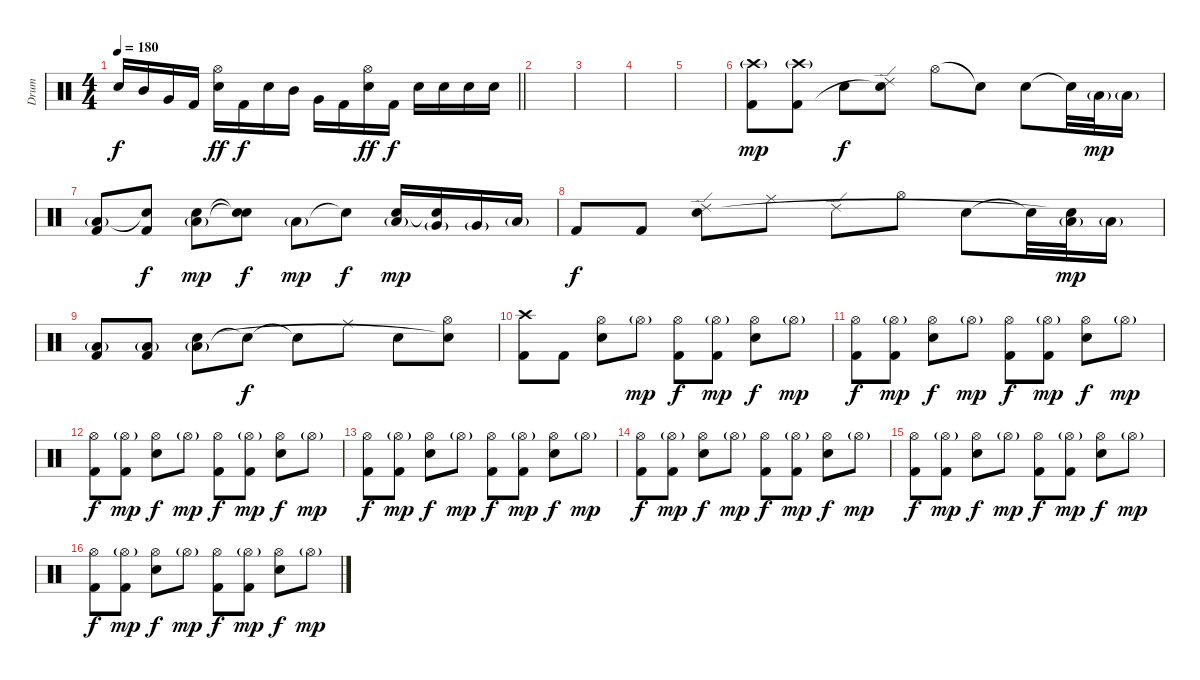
\track ("Drum" "Drum") {instrument percussion}
\staff {score}
\articulation defaults
\ts (4 4)
\tempo 180
\clef neutral
\barLineRight lightlight
\ks c "Electric Snare (hit)".16{dy f} "Mid Tom (hit)".16 "Very Low Tom (hit)".16 "Kick (hit) 2".16
("Hi-Hat (open)" "Electric Snare (hit)").16{dy ff} "Kick (hit) 2".16{dy f} "Electric Snare (hit)".16 "Mid Tom (hit)".16 "Very Low Tom (hit)".16 "Kick (hit) 2".16 ("Hi-Hat (open)" "Electric Snare (hit)").16{dy ff} "Kick (hit) 2".16{dy f} "Electric Snare (hit)".16 "Electric Snare (hit)".16 "Electric Snare (hit)".16 "Electric Snare (hit)".16 |
|
|
|
|
("Crash high (hit)"{g} "Kick (hit) 2").8{dy mp} ("Crash high (hit)"{g} "Kick (hit) 2").8 "Snare (hit) 2".8{dy f} ("Ride (edge) 2" "Snare (hit)"{t}).8 "Hi-Hat (open)".8 "Snare (hit)"{t}.8 "Snare (hit) 2".8 "Snare (hit)"{t}.32 "Low Tom (hit)"{g}.32{dy mp} "Low Tom (hit)"{g}.16 |
("Low Tom (hit)"{g} "Kick (hit) 2").8 ("Snare (hit)"{t} "Kick (hit) 2").8{dy f} ("Low Tom (hit)"{g} "Snare (hit) 2").8{dy mp} ("Snare (hit)"{t} "Snare (hit)"{t}).8{dy f} "Low Tom (hit)"{g}.8{dy mp} "Snare (hit)"{t}.8{dy f} ("Low Tom (hit)"{g} "Snare (hit) 2").16{dy mp} ("Very Low Tom (hit)"{g} "Snare (hit)"{t}).16 "Very Low Tom (hit)"{g}.16 "Low Floor Tom (hit)"{g}.16 |
"Kick (hit) 2".8{dy f} "Kick (hit) 2".8 ("Ride (edge) 2" "Snare (hit) 2").8 "Ride (middle)".8 "Ride (edge) 2".8 "Hi-Hat (open)".8 "Snare (hit) 2".8 "Snare (hit)"{t}.32 ("Low Tom (hit)"{g} "Snare (hit)"{t}).32{dy mp} "Low Tom (hit)"{g}.16 |
("Low Tom (hit)"{g} "Kick (hit) 2").8 ("Low Tom (hit)"{g} "Kick (hit) 2").8 ("Low Tom (hit)"{g} "Snare (hit) 2").8 "Snare (hit)"{t}.8{dy f} "Snare (hit)"{t}.8 "Ride (middle)".8 "Snare (hit) 2".8 ("Hi-Hat (open)" "Snare (hit)"{t}).8 |
("Crash high (hit)" "Kick (hit) 2").8 "Kick (hit) 2".8 ("Hi-Hat (open)" "Electric Snare (hit)").8 "Hi-Hat (open)"{g}.8{dy mp} ("Hi-Hat (open)" "Kick (hit) 2").8{dy f} ("Hi-Hat (open)"{g} "Kick (hit) 2").8{dy mp} ("Hi-Hat (open)" "Electric Snare (hit)").8{dy f} "Hi-Hat (open)"{g}.8{dy mp} |
("Hi-Hat (open)" "Kick (hit) 2").8{dy f} ("Hi-Hat (open)"{g} "Kick (hit) 2").8{dy mp} ("Hi-Hat (open)" "Electric Snare (hit)").8{dy f} "Hi-Hat (open)"{g}.8{dy mp} ("Hi-Hat (open)" "Kick (hit) 2").8{dy f} ("Hi-Hat (open)"{g} "Kick (hit) 2").8{dy mp} ("Hi-Hat (open)" "Electric Snare (hit)").8{dy f} "Hi-Hat (open)"{g}.8{dy mp} |
("Hi-Hat (open)" "Kick (hit) 2").8{dy f} ("Hi-Hat (open)"{g} "Kick (hit) 2").8{dy mp} ("Hi-Hat (open)" "Electric Snare (hit)").8{dy f} "Hi-Hat (open)"{g}.8{dy mp} ("Hi-Hat (open)" "Kick (hit) 2").8{dy f} ("Hi-Hat (open)"{g} "Kick (hit) 2").8{dy mp} ("Hi-Hat (open)" "Electric Snare (hit)").8{dy f} "Hi-Hat (open)"{g}.8{dy mp} |
("Hi-Hat (open)" "Kick (hit) 2").8{dy f} ("Hi-Hat (open)"{g} "Kick (hit) 2").8{dy mp} ("Hi-Hat (open)" "Electric Snare (hit)").8{dy f} "Hi-Hat (open)"{g}.8{dy mp} ("Hi-Hat (open)" "Kick (hit) 2").8{dy f} ("Hi-Hat (open)"{g} "Kick (hit) 2").8{dy mp} ("Hi-Hat (open)" "Electric Snare (hit)").8{dy f} "Hi-Hat (open)"{g}.8{dy mp} |
("Hi-Hat (open)" "Kick (hit) 2").8{dy f} ("Hi-Hat (open)"{g} "Kick (hit) 2").8{dy mp} ("Hi-Hat (open)" "Electric Snare (hit)").8{dy f} "Hi-Hat (open)"{g}.8{dy mp} ("Hi-Hat (open)" "Kick (hit) 2").8{dy f} ("Hi-Hat (open)"{g} "Kick (hit) 2").8{dy mp} ("Hi-Hat (open)" "Electric Snare (hit)").8{dy f} "Hi-Hat (open)"{g}.8{dy mp} |
("Hi-Hat (open)" "Kick (hit) 2").8{dy f} ("Hi-Hat (open)"{g} "Kick (hit) 2").8{dy mp} ("Hi-Hat (open)" "Electric Snare (hit)").8{dy f} "Hi-Hat (open)"{g}.8{dy mp} ("Hi-Hat (open)" "Kick (hit) 2").8{dy f} ("Hi-Hat (open)"{g} "Kick (hit) 2").8{dy mp} ("Hi-Hat (open)" "Electric Snare (hit)").8{dy f} "Hi-Hat (open)"{g}.8{dy mp} |
("Hi-Hat (open)" "Kick (hit) 2").8{dy f} ("Hi-Hat (open)"{g} "Kick (hit) 2").8{dy mp} ("Hi-Hat (open)" "Electric Snare (hit)").8{dy f} "Hi-Hat (open)"{g}.8{dy mp} ("Hi-Hat (open)" "Kick (hit) 2").8{dy f} ("Hi-Hat (open)"{g} "Kick (hit) 2").8{dy mp} ("Hi-Hat (open)" "Electric Snare (hit)").8{dy f} "Hi-Hat (open)"{g}.8{dy mp}
